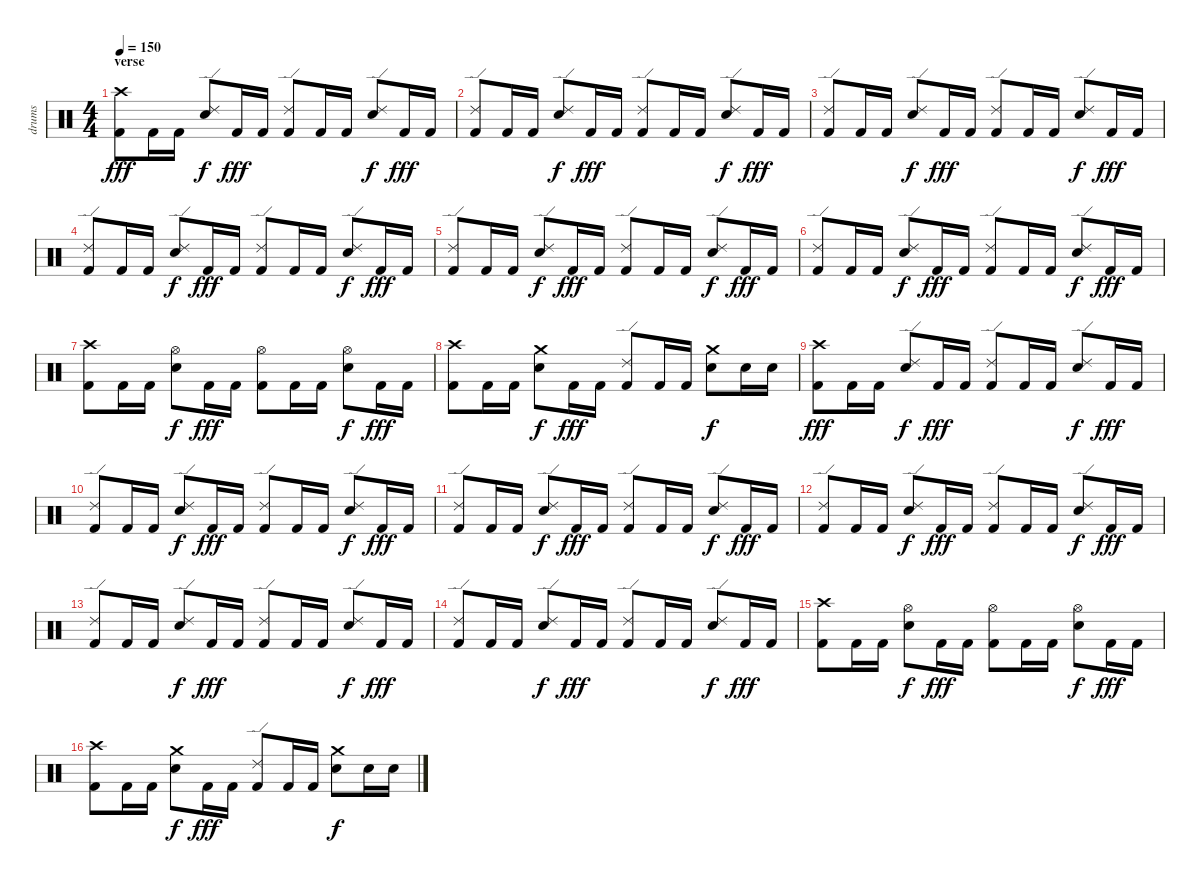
\track ("drums" "drums") {instrument percussion}
\staff {score}
\articulation defaults
\ts (4 4)
\section ("" "verse")
\tempo 150
\clef neutral
\ks c
("Crash high (hit)" "Kick (hit) 2").8{dy fff} "Kick (hit) 2".16 "Kick (hit) 2".16 ("Ride (edge) 2" "Snare (hit) 2").8{dy f} "Kick (hit) 2".16{dy fff} "Kick (hit) 2".16 ("Ride (edge) 2" "Kick (hit) 2").8 "Kick (hit) 2".16 "Kick (hit) 2".16 ("Ride (edge) 2" "Snare (hit) 2").8{dy f} "Kick (hit) 2".16{dy fff} "Kick (hit) 2".16 |
("Ride (edge) 2" "Kick (hit) 2").8 "Kick (hit) 2".16 "Kick (hit) 2".16 ("Ride (edge) 2" "Snare (hit) 2").8{dy f} "Kick (hit) 2".16{dy fff} "Kick (hit) 2".16 ("Ride (edge) 2" "Kick (hit) 2").8 "Kick (hit) 2".16 "Kick (hit) 2".16 ("Ride (edge) 2" "Snare (hit) 2").8{dy f} "Kick (hit) 2".16{dy fff} "Kick (hit) 2".16 |
("Ride (edge) 2" "Kick (hit) 2").8 "Kick (hit) 2".16 "Kick (hit) 2".16 ("Ride (edge) 2" "Snare (hit) 2").8{dy f} "Kick (hit) 2".16{dy fff} "Kick (hit) 2".16 ("Ride (edge) 2" "Kick (hit) 2").8 "Kick (hit) 2".16 "Kick (hit) 2".16 ("Ride (edge) 2" "Snare (hit) 2").8{dy f} "Kick (hit) 2".16{dy fff} "Kick (hit) 2".16 |
("Ride (edge) 2" "Kick (hit) 2").8 "Kick (hit) 2".16 "Kick (hit) 2".16 ("Ride (edge) 2" "Snare (hit) 2").8{dy f} "Kick (hit) 2".16{dy fff} "Kick (hit) 2".16 ("Ride (edge) 2" "Kick (hit) 2").8 "Kick (hit) 2".16 "Kick (hit) 2".16 ("Ride (edge) 2" "Snare (hit) 2").8{dy f} "Kick (hit) 2".16{dy fff} "Kick (hit) 2".16 |
("Ride (edge) 2" "Kick (hit) 2").8 "Kick (hit) 2".16 "Kick (hit) 2".16 ("Ride (edge) 2" "Snare (hit) 2").8{dy f} "Kick (hit) 2".16{dy fff} "Kick (hit) 2".16 ("Ride (edge) 2" "Kick (hit) 2").8 "Kick (hit) 2".16 "Kick (hit) 2".16 ("Ride (edge) 2" "Snare (hit) 2").8{dy f} "Kick (hit) 2".16{dy fff} "Kick (hit) 2".16 |
("Ride (edge) 2" "Kick (hit) 2").8 "Kick (hit) 2".16 "Kick (hit) 2".16 ("Ride (edge) 2" "Snare (hit) 2").8{dy f} "Kick (hit) 2".16{dy fff} "Kick (hit) 2".16 ("Ride (edge) 2" "Kick (hit) 2").8 "Kick (hit) 2".16 "Kick (hit) 2".16 ("Ride (edge) 2" "Snare (hit) 2").8{dy f} "Kick (hit) 2".16{dy fff} "Kick (hit) 2".16 |
("Crash high (hit)" "Kick (hit) 2").8 "Kick (hit) 2".16 "Kick (hit) 2".16 ("Hi-Hat (open)" "Snare (hit) 2").8{dy f} "Kick (hit) 2".16{dy fff} "Kick (hit) 2".16 ("Hi-Hat (open)" "Kick (hit) 2").8 "Kick (hit) 2".16 "Kick (hit) 2".16 ("Hi-Hat (open)" "Snare (hit) 2").8{dy f} "Kick (hit) 2".16{dy fff} "Kick (hit) 2".16 |
("Crash high (hit)" "Kick (hit) 2").8 "Kick (hit) 2".16 "Kick (hit) 2".16 ("Crash medium (hit)" "Snare (hit) 2").8{dy f} "Kick (hit) 2".16{dy fff} "Kick (hit) 2".16 ("Ride (edge) 2" "Kick (hit) 2").8 "Kick (hit) 2".16 "Kick (hit) 2".16 ("Crash medium (hit)" "Snare (hit) 2").8{dy f} "Snare (hit) 2".16 "Snare (hit) 2".16 |
("Crash high (hit)" "Kick (hit) 2").8{dy fff} "Kick (hit) 2".16 "Kick (hit) 2".16 ("Ride (edge) 2" "Snare (hit) 2").8{dy f} "Kick (hit) 2".16{dy fff} "Kick (hit) 2".16 ("Ride (edge) 2" "Kick (hit) 2").8 "Kick (hit) 2".16 "Kick (hit) 2".16 ("Ride (edge) 2" "Snare (hit) 2").8{dy f} "Kick (hit) 2".16{dy fff} "Kick (hit) 2".16 |
("Ride (edge) 2" "Kick (hit) 2").8 "Kick (hit) 2".16 "Kick (hit) 2".16 ("Ride (edge) 2" "Snare (hit) 2").8{dy f} "Kick (hit) 2".16{dy fff} "Kick (hit) 2".16 ("Ride (edge) 2" "Kick (hit) 2").8 "Kick (hit) 2".16 "Kick (hit) 2".16 ("Ride (edge) 2" "Snare (hit) 2").8{dy f} "Kick (hit) 2".16{dy fff} "Kick (hit) 2".16 |
("Ride (edge) 2" "Kick (hit) 2").8 "Kick (hit) 2".16 "Kick (hit) 2".16 ("Ride (edge) 2" "Snare (hit) 2").8{dy f} "Kick (hit) 2".16{dy fff} "Kick (hit) 2".16 ("Ride (edge) 2" "Kick (hit) 2").8 "Kick (hit) 2".16 "Kick (hit) 2".16 ("Ride (edge) 2" "Snare (hit) 2").8{dy f} "Kick (hit) 2".16{dy fff} "Kick (hit) 2".16 |
("Ride (edge) 2" "Kick (hit) 2").8 "Kick (hit) 2".16 "Kick (hit) 2".16 ("Ride (edge) 2" "Snare (hit) 2").8{dy f} "Kick (hit) 2".16{dy fff} "Kick (hit) 2".16 ("Ride (edge) 2" "Kick (hit) 2").8 "Kick (hit) 2".16 "Kick (hit) 2".16 ("Ride (edge) 2" "Snare (hit) 2").8{dy f} "Kick (hit) 2".16{dy fff} "Kick (hit) 2".16 |
("Ride (edge) 2" "Kick (hit) 2").8 "Kick (hit) 2".16 "Kick (hit) 2".16 ("Ride (edge) 2" "Snare (hit) 2").8{dy f} "Kick (hit) 2".16{dy fff} "Kick (hit) 2".16 ("Ride (edge) 2" "Kick (hit) 2").8 "Kick (hit) 2".16 "Kick (hit) 2".16 ("Ride (edge) 2" "Snare (hit) 2").8{dy f} "Kick (hit) 2".16{dy fff} "Kick (hit) 2".16 |
("Ride (edge) 2" "Kick (hit) 2").8 "Kick (hit) 2".16 "Kick (hit) 2".16 ("Ride (edge) 2" "Snare (hit) 2").8{dy f} "Kick (hit) 2".16{dy fff} "Kick (hit) 2".16 ("Ride (edge) 2" "Kick (hit) 2").8 "Kick (hit) 2".16 "Kick (hit) 2".16 ("Ride (edge) 2" "Snare (hit) 2").8{dy f} "Kick (hit) 2".16{dy fff} "Kick (hit) 2".16 |
("Crash high (hit)" "Kick (hit) 2").8 "Kick (hit) 2".16 "Kick (hit) 2".16 ("Hi-Hat (open)" "Snare (hit) 2").8{dy f} "Kick (hit) 2".16{dy fff} "Kick (hit) 2".16 ("Hi-Hat (open)" "Kick (hit) 2").8 "Kick (hit) 2".16 "Kick (hit) 2".16 ("Hi-Hat (open)" "Snare (hit) 2").8{dy f} "Kick (hit) 2".16{dy fff} "Kick (hit) 2".16 |
("Crash high (hit)" "Kick (hit) 2").8 "Kick (hit) 2".16 "Kick (hit) 2".16 ("Crash medium (hit)" "Snare (hit) 2").8{dy f} "Kick (hit) 2".16{dy fff} "Kick (hit) 2".16 ("Ride (edge) 2" "Kick (hit) 2").8 "Kick (hit) 2".16 "Kick (hit) 2".16 ("Crash medium (hit)" "Snare (hit) 2").8{dy f} "Snare (hit) 2".16 "Snare (hit) 2".16
